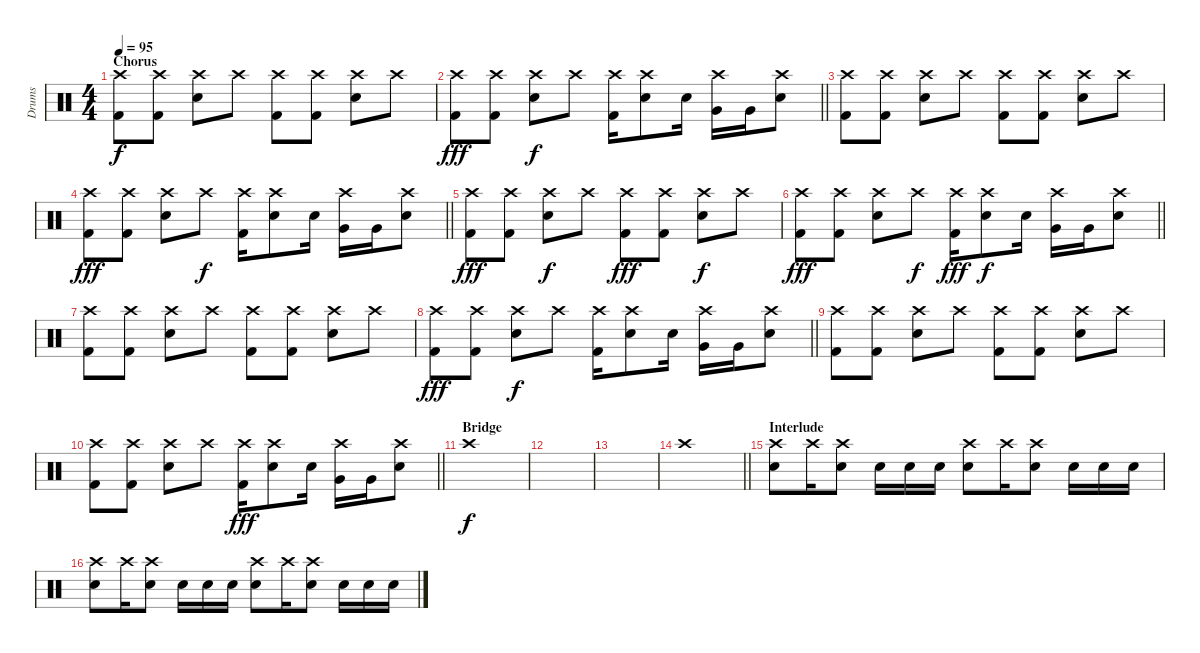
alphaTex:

\track ("Drums" "Drums") {instrument percussion}
\staff {score}
\articulation defaults
\ts (4 4)
\section ("" "Chorus")
\tempo 95
\clef neutral
\ks c
("Crash high (hit)" "Kick (hit) 2").8{dy f} ("Crash high (hit)" "Kick (hit) 2").8 ("Crash high (hit)" "Snare (hit) 2").8 "Crash high (hit)".8 ("Crash high (hit)" "Kick (hit) 2").8 ("Crash high (hit)" "Kick (hit) 2").8 ("Crash high (hit)" "Snare (hit) 2").8 "Crash high (hit)".8 |
\barLineRight lightlight
("Crash high (hit)" "Kick (hit) 2").8{dy fff} ("Crash high (hit)" "Kick (hit) 2").8 ("Crash high (hit)" "Snare (hit) 2").8{dy f} "Crash high (hit)".8 ("Kick (hit) 2" "Crash high (hit)").16 ("Snare (hit) 2" "Crash high (hit)").8 "Snare (hit) 2".16 ("Very Low Tom (hit)" "Crash high (hit)").16 "Very Low Tom (hit)".16 ("Snare (hit) 2" "Crash high (hit)").8 |
("Crash high (hit)" "Kick (hit) 2").8 ("Crash high (hit)" "Kick (hit) 2").8 ("Crash high (hit)" "Snare (hit) 2").8 "Crash high (hit)".8 ("Crash high (hit)" "Kick (hit) 2").8 ("Crash high (hit)" "Kick (hit) 2").8 ("Crash high (hit)" "Snare (hit) 2").8 "Crash high (hit)".8 |
\barLineRight lightlight
("Crash high (hit)" "Kick (hit) 2").8{dy fff} ("Crash high (hit)" "Kick (hit) 2").8 ("Crash high (hit)" "Snare (hit) 2").8 "Crash high (hit)".8{dy f} ("Kick (hit) 2" "Crash high (hit)").16 ("Snare (hit) 2" "Crash high (hit)").8 "Snare (hit) 2".16 ("Very Low Tom (hit)" "Crash high (hit)").16 "Very Low Tom (hit)".16 ("Snare (hit) 2" "Crash high (hit)").8 |
("Crash high (hit)" "Kick (hit) 2").8{dy fff} ("Crash high (hit)" "Kick (hit) 2").8 ("Crash high (hit)" "Snare (hit) 2").8{dy f} "Crash high (hit)".8 ("Crash high (hit)" "Kick (hit) 2").8{dy fff} ("Crash high (hit)" "Kick (hit) 2").8 ("Crash high (hit)" "Snare (hit) 2").8{dy f} "Crash high (hit)".8 |
\barLineRight lightlight
("Crash high (hit)" "Kick (hit) 2").8{dy fff} ("Crash high (hit)" "Kick (hit) 2").8 ("Crash high (hit)" "Snare (hit) 2").8 "Crash high (hit)".8{dy f} ("Kick (hit) 2" "Crash high (hit)").16{dy fff} ("Snare (hit) 2" "Crash high (hit)").8{dy f} "Snare (hit) 2".16 ("Very Low Tom (hit)" "Crash high (hit)").16 "Very Low Tom (hit)".16 ("Snare (hit) 2" "Crash high (hit)").8 |
("Crash high (hit)" "Kick (hit) 2").8 ("Crash high (hit)" "Kick (hit) 2").8 ("Crash high (hit)" "Snare (hit) 2").8 "Crash high (hit)".8 ("Crash high (hit)" "Kick (hit) 2").8 ("Crash high (hit)" "Kick (hit) 2").8 ("Crash high (hit)" "Snare (hit) 2").8 "Crash high (hit)".8 |
\barLineRight lightlight
("Crash high (hit)" "Kick (hit) 2").8{dy fff} ("Crash high (hit)" "Kick (hit) 2").8 ("Crash high (hit)" "Snare (hit) 2").8{dy f} "Crash high (hit)".8 ("Kick (hit) 2" "Crash high (hit)").16 ("Snare (hit) 2" "Crash high (hit)").8 "Snare (hit) 2".16 ("Very Low Tom (hit)" "Crash high (hit)").16 "Very Low Tom (hit)".16 ("Snare (hit) 2" "Crash high (hit)").8 |
("Crash high (hit)" "Kick (hit) 2").8 ("Crash high (hit)" "Kick (hit) 2").8 ("Crash high (hit)" "Snare (hit) 2").8 "Crash high (hit)".8 ("Crash high (hit)" "Kick (hit) 2").8 ("Crash high (hit)" "Kick (hit) 2").8 ("Crash high (hit)" "Snare (hit) 2").8 "Crash high (hit)".8 |
\barLineRight lightlight
("Crash high (hit)" "Kick (hit) 2").8 ("Crash high (hit)" "Kick (hit) 2").8 ("Crash high (hit)" "Snare (hit) 2").8 "Crash high (hit)".8 ("Kick (hit) 2" "Crash high (hit)").16{dy fff} ("Snare (hit) 2" "Crash high (hit)").8 "Snare (hit) 2".16 ("Very Low Tom (hit)" "Crash high (hit)").16 "Very Low Tom (hit)".16 ("Snare (hit) 2" "Crash high (hit)").8 |
\section ("" "Bridge")
"Crash high (hit)".1{dy f} |
|
|
\barLineRight lightlight "Crash high (hit)".1
|
\section ("" "Interlude")
("Crash high (hit)" "Snare (hit) 2").8 "Crash high (hit)".16 ("Snare (hit) 2" "Crash high (hit)").8 "Snare (hit) 2".16 "Snare (hit) 2".16 "Snare (hit) 2".16 ("Crash high (hit)" "Snare (hit) 2").8 "Crash high (hit)".16 ("Snare (hit) 2" "Crash high (hit)").8 "Snare (hit) 2".16 "Snare (hit) 2".16 "Snare (hit) 2".16 |
("Crash high (hit)" "Snare (hit) 2").8 "Crash high (hit)".16 ("Snare (hit) 2" "Crash high (hit)").8 "Snare (hit) 2".16 "Snare (hit) 2".16 "Snare (hit) 2".16 ("Crash high (hit)" "Snare (hit) 2").8 "Crash high (hit)".16 ("Snare (hit) 2" "Crash high (hit)").8 "Snare (hit) 2".16 "Snare (hit) 2".16 "Snare (hit) 2".16
